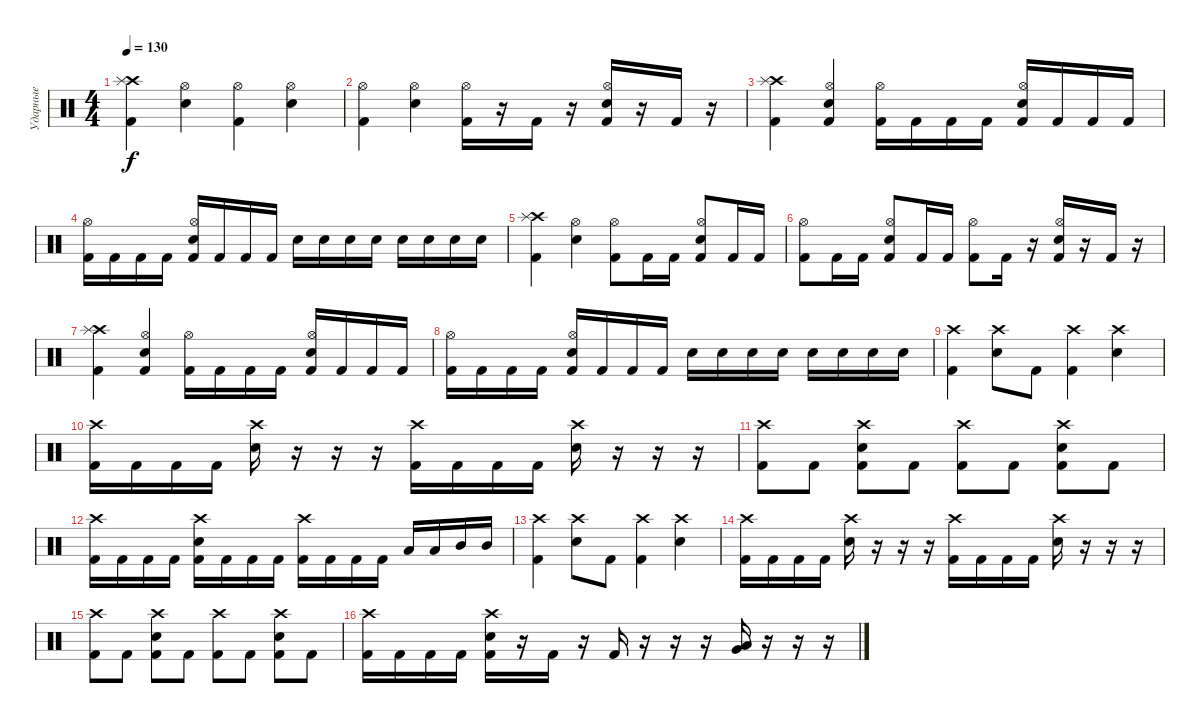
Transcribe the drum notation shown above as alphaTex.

\track ("Ударные" "Ударные") {instrument percussion}
\staff {score}
\articulation defaults
\ts (4 4)
\tempo 130
\clef neutral
\ks c
("Crash high (hit)" "Splash (hit)" "Kick (hit) 2").4{dy f} ("Hi-Hat (open)" "Snare (hit) 2").4 ("Hi-Hat (open)" "Kick (hit) 2").4 ("Hi-Hat (open)" "Snare (hit) 2").4 |
("Hi-Hat (open)" "Kick (hit) 2").4 ("Hi-Hat (open)" "Snare (hit) 2").4 ("Hi-Hat (open)" "Kick (hit) 2").16 r.16 "Kick (hit) 2".16 r.16 ("Hi-Hat (open)" "Snare (hit) 2" "Kick (hit) 2").16 r.16 "Kick (hit) 2".16 r.16 |
("Crash high (hit)" "Splash (hit)" "Kick (hit) 2").4 ("Hi-Hat (open)" "Snare (hit) 2" "Kick (hit) 2").4 ("Hi-Hat (open)" "Kick (hit) 2").16 "Kick (hit) 2".16 "Kick (hit) 2".16 "Kick (hit) 2".16 ("Hi-Hat (open)" "Snare (hit) 2" "Kick (hit) 2").16 "Kick (hit) 2".16 "Kick (hit) 2".16 "Kick (hit) 2".16 |
("Hi-Hat (open)" "Kick (hit) 2").16 "Kick (hit) 2".16 "Kick (hit) 2".16 "Kick (hit) 2".16 ("Hi-Hat (open)" "Snare (hit) 2" "Kick (hit) 2").16 "Kick (hit) 2".16 "Kick (hit) 2".16 "Kick (hit) 2".16 "Snare (hit) 2".16 "Snare (hit) 2".16 "Snare (hit) 2".16 "Snare (hit) 2".16 "Snare (hit) 2".16 "Snare (hit) 2".16 "Snare (hit) 2".16 "Snare (hit) 2".16 |
("Crash high (hit)" "Splash (hit)" "Kick (hit) 2").4 ("Hi-Hat (open)" "Snare (hit) 2").4 ("Hi-Hat (open)" "Kick (hit) 2").8 "Kick (hit) 2".16 "Kick (hit) 2".16 ("Hi-Hat (open)" "Snare (hit) 2" "Kick (hit) 2").8 "Kick (hit) 2".16 "Kick (hit) 2".16 |
("Hi-Hat (open)" "Kick (hit) 2").8 "Kick (hit) 2".16 "Kick (hit) 2".16 ("Hi-Hat (open)" "Snare (hit) 2" "Kick (hit) 2").8 "Kick (hit) 2".16 "Kick (hit) 2".16 ("Hi-Hat (open)" "Kick (hit) 2").8 "Kick (hit) 2".16 r.16 ("Hi-Hat (open)" "Snare (hit) 2" "Kick (hit) 2").16 r.16 "Kick (hit) 2".16 r.16 |
("Crash high (hit)" "Splash (hit)" "Kick (hit) 2").4 ("Hi-Hat (open)" "Snare (hit) 2" "Kick (hit) 2").4 ("Hi-Hat (open)" "Kick (hit) 2").16 "Kick (hit) 2".16 "Kick (hit) 2".16 "Kick (hit) 2".16 ("Hi-Hat (open)" "Snare (hit) 2" "Kick (hit) 2").16 "Kick (hit) 2".16 "Kick (hit) 2".16 "Kick (hit) 2".16 |
("Hi-Hat (open)" "Kick (hit) 2").16 "Kick (hit) 2".16 "Kick (hit) 2".16 "Kick (hit) 2".16 ("Hi-Hat (open)" "Snare (hit) 2" "Kick (hit) 2").16 "Kick (hit) 2".16 "Kick (hit) 2".16 "Kick (hit) 2".16 "Snare (hit) 2".16 "Snare (hit) 2".16 "Snare (hit) 2".16 "Snare (hit) 2".16 "Snare (hit) 2".16 "Snare (hit) 2".16 "Snare (hit) 2".16 "Snare (hit) 2".16 |
("Crash high (hit)" "Kick (hit) 2").4 ("Crash high (hit)" "Snare (hit) 2").8 "Kick (hit) 2".8 ("Crash high (hit)" "Kick (hit) 2").4 ("Crash high (hit)" "Snare (hit) 2").4 |
("Crash high (hit)" "Kick (hit) 2").16 "Kick (hit) 2".16 "Kick (hit) 2".16 "Kick (hit) 2".16 ("Crash high (hit)" "Snare (hit) 2").16 r.16 r.16 r.16 ("Crash high (hit)" "Kick (hit) 2").16 "Kick (hit) 2".16 "Kick (hit) 2".16 "Kick (hit) 2".16 ("Crash high (hit)" "Snare (hit) 2").16 r.16 r.16 r.16 |
("Crash high (hit)" "Kick (hit) 2").8 "Kick (hit) 2".8 ("Crash high (hit)" "Snare (hit) 2" "Kick (hit) 2").8 "Kick (hit) 2".8 ("Crash high (hit)" "Kick (hit) 2").8 "Kick (hit) 2".8 ("Crash high (hit)" "Snare (hit) 2" "Kick (hit) 2").8 "Kick (hit) 2".8 |
("Crash high (hit)" "Kick (hit) 2").16 "Kick (hit) 2".16 "Kick (hit) 2".16 "Kick (hit) 2".16 ("Crash high (hit)" "Snare (hit) 2" "Kick (hit) 2").16 "Kick (hit) 2".16 "Kick (hit) 2".16 "Kick (hit) 2".16 ("Crash high (hit)" "Kick (hit) 2").16 "Kick (hit) 2".16 "Kick (hit) 2".16 "Kick (hit) 2".16 "Low Tom (hit)".16 "Low Tom (hit)".16 "Mid Tom (hit)".16 "Mid Tom (hit)".16 |
("Crash high (hit)" "Kick (hit) 2").4 ("Crash high (hit)" "Snare (hit) 2").8 "Kick (hit) 2".8 ("Crash high (hit)" "Kick (hit) 2").4 ("Crash high (hit)" "Snare (hit) 2").4 |
("Crash high (hit)" "Kick (hit) 2").16 "Kick (hit) 2".16 "Kick (hit) 2".16 "Kick (hit) 2".16 ("Crash high (hit)" "Snare (hit) 2").16 r.16 r.16 r.16 ("Crash high (hit)" "Kick (hit) 2").16 "Kick (hit) 2".16 "Kick (hit) 2".16 "Kick (hit) 2".16 ("Crash high (hit)" "Snare (hit) 2").16 r.16 r.16 r.16 |
("Crash high (hit)" "Kick (hit) 2").8 "Kick (hit) 2".8 ("Crash high (hit)" "Snare (hit) 2" "Kick (hit) 2").8 "Kick (hit) 2".8 ("Crash high (hit)" "Kick (hit) 2").8 "Kick (hit) 2".8 ("Crash high (hit)" "Snare (hit) 2" "Kick (hit) 2").8 "Kick (hit) 2".8 |
("Crash high (hit)" "Kick (hit) 2").16 "Kick (hit) 2".16 "Kick (hit) 2".16 "Kick (hit) 2".16 ("Crash high (hit)" "Snare (hit) 2" "Kick (hit) 2").16 r.16 "Kick (hit) 2".16 r.16 "Kick (hit) 2".16 r.16 r.16 r.16 ("Very Low Tom (hit)" "Low Tom (hit)").16 r.16 r.16 r.16
